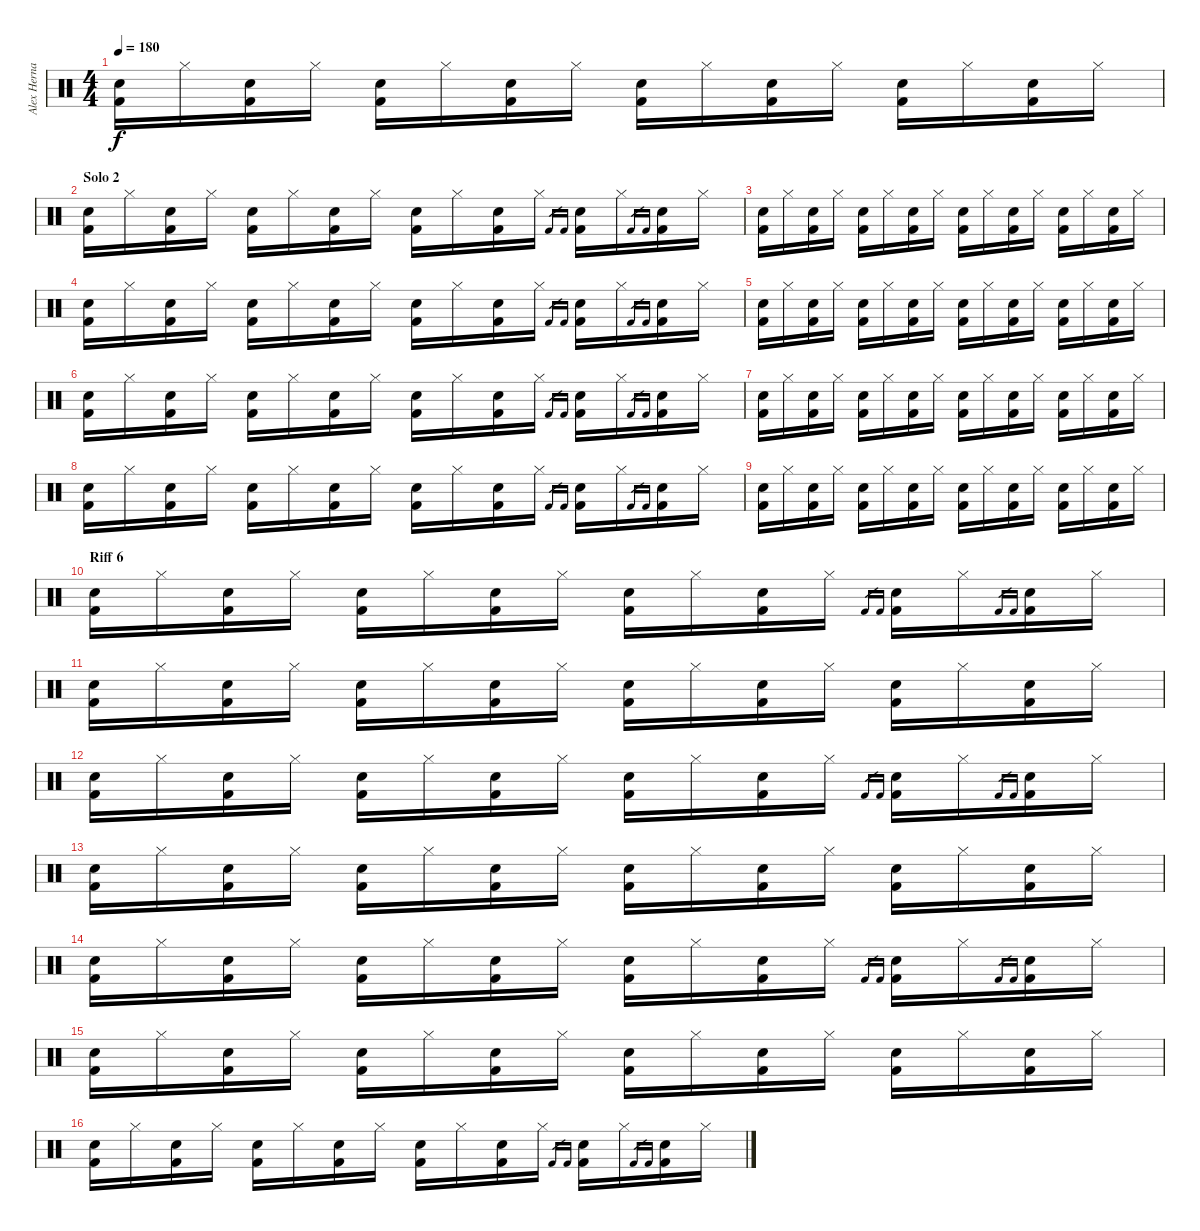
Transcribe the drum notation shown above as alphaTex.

\track ("Alex Hernandez" "Alex Herna") {instrument percussion}
\staff {score}
\articulation defaults
\ts (4 4)
\tempo 180
\clef neutral
\ks c
("Electric Snare (hit)" "Kick (hit) 2").16{dy f} "Hi-Hat (closed)".16 ("Electric Snare (hit)" "Kick (hit) 2").16 "Hi-Hat (closed)".16 ("Electric Snare (hit)" "Kick (hit) 2").16 "Hi-Hat (closed)".16 ("Electric Snare (hit)" "Kick (hit) 2").16 "Hi-Hat (closed)".16 ("Electric Snare (hit)" "Kick (hit) 2").16 "Hi-Hat (closed)".16 ("Electric Snare (hit)" "Kick (hit) 2").16 "Hi-Hat (closed)".16 ("Electric Snare (hit)" "Kick (hit) 2").16 "Hi-Hat (closed)".16 ("Electric Snare (hit)" "Kick (hit) 2").16 "Hi-Hat (closed)".16 |
\section ("" "Solo 2")
("Electric Snare (hit)" "Kick (hit) 2").16 "Hi-Hat (closed)".16 ("Electric Snare (hit)" "Kick (hit) 2").16 "Hi-Hat (closed)".16 ("Electric Snare (hit)" "Kick (hit) 2").16 "Hi-Hat (closed)".16 ("Electric Snare (hit)" "Kick (hit) 2").16 "Hi-Hat (closed)".16 ("Electric Snare (hit)" "Kick (hit) 2").16 "Hi-Hat (closed)".16 ("Electric Snare (hit)" "Kick (hit) 2").16 "Hi-Hat (closed)".16 "Kick (hit) 2".16{gr} "Kick (hit) 2".16{gr} ("Electric Snare (hit)" "Kick (hit) 2").16 "Hi-Hat (closed)".16 "Kick (hit) 2".16{gr} "Kick (hit) 2".16{gr} ("Electric Snare (hit)" "Kick (hit) 2").16 "Hi-Hat (closed)".16 |
("Electric Snare (hit)" "Kick (hit) 2").16 "Hi-Hat (closed)".16 ("Electric Snare (hit)" "Kick (hit) 2").16 "Hi-Hat (closed)".16 ("Electric Snare (hit)" "Kick (hit) 2").16 "Hi-Hat (closed)".16 ("Electric Snare (hit)" "Kick (hit) 2").16 "Hi-Hat (closed)".16 ("Electric Snare (hit)" "Kick (hit) 2").16 "Hi-Hat (closed)".16 ("Electric Snare (hit)" "Kick (hit) 2").16 "Hi-Hat (closed)".16 ("Electric Snare (hit)" "Kick (hit) 2").16 "Hi-Hat (closed)".16 ("Electric Snare (hit)" "Kick (hit) 2").16 "Hi-Hat (closed)".16 |
("Electric Snare (hit)" "Kick (hit) 2").16 "Hi-Hat (closed)".16 ("Electric Snare (hit)" "Kick (hit) 2").16 "Hi-Hat (closed)".16 ("Electric Snare (hit)" "Kick (hit) 2").16 "Hi-Hat (closed)".16 ("Electric Snare (hit)" "Kick (hit) 2").16 "Hi-Hat (closed)".16 ("Electric Snare (hit)" "Kick (hit) 2").16 "Hi-Hat (closed)".16 ("Electric Snare (hit)" "Kick (hit) 2").16 "Hi-Hat (closed)".16 "Kick (hit) 2".16{gr} "Kick (hit) 2".16{gr} ("Electric Snare (hit)" "Kick (hit) 2").16 "Hi-Hat (closed)".16 "Kick (hit) 2".16{gr} "Kick (hit) 2".16{gr} ("Electric Snare (hit)" "Kick (hit) 2").16 "Hi-Hat (closed)".16 |
("Electric Snare (hit)" "Kick (hit) 2").16 "Hi-Hat (closed)".16 ("Electric Snare (hit)" "Kick (hit) 2").16 "Hi-Hat (closed)".16 ("Electric Snare (hit)" "Kick (hit) 2").16 "Hi-Hat (closed)".16 ("Electric Snare (hit)" "Kick (hit) 2").16 "Hi-Hat (closed)".16 ("Electric Snare (hit)" "Kick (hit) 2").16 "Hi-Hat (closed)".16 ("Electric Snare (hit)" "Kick (hit) 2").16 "Hi-Hat (closed)".16 ("Electric Snare (hit)" "Kick (hit) 2").16 "Hi-Hat (closed)".16 ("Electric Snare (hit)" "Kick (hit) 2").16 "Hi-Hat (closed)".16 |
("Electric Snare (hit)" "Kick (hit) 2").16 "Hi-Hat (closed)".16 ("Electric Snare (hit)" "Kick (hit) 2").16 "Hi-Hat (closed)".16 ("Electric Snare (hit)" "Kick (hit) 2").16 "Hi-Hat (closed)".16 ("Electric Snare (hit)" "Kick (hit) 2").16 "Hi-Hat (closed)".16 ("Electric Snare (hit)" "Kick (hit) 2").16 "Hi-Hat (closed)".16 ("Electric Snare (hit)" "Kick (hit) 2").16 "Hi-Hat (closed)".16 "Kick (hit) 2".16{gr} "Kick (hit) 2".16{gr} ("Electric Snare (hit)" "Kick (hit) 2").16 "Hi-Hat (closed)".16 "Kick (hit) 2".16{gr} "Kick (hit) 2".16{gr} ("Electric Snare (hit)" "Kick (hit) 2").16 "Hi-Hat (closed)".16 |
("Electric Snare (hit)" "Kick (hit) 2").16 "Hi-Hat (closed)".16 ("Electric Snare (hit)" "Kick (hit) 2").16 "Hi-Hat (closed)".16 ("Electric Snare (hit)" "Kick (hit) 2").16 "Hi-Hat (closed)".16 ("Electric Snare (hit)" "Kick (hit) 2").16 "Hi-Hat (closed)".16 ("Electric Snare (hit)" "Kick (hit) 2").16 "Hi-Hat (closed)".16 ("Electric Snare (hit)" "Kick (hit) 2").16 "Hi-Hat (closed)".16 ("Electric Snare (hit)" "Kick (hit) 2").16 "Hi-Hat (closed)".16 ("Electric Snare (hit)" "Kick (hit) 2").16 "Hi-Hat (closed)".16 |
("Electric Snare (hit)" "Kick (hit) 2").16 "Hi-Hat (closed)".16 ("Electric Snare (hit)" "Kick (hit) 2").16 "Hi-Hat (closed)".16 ("Electric Snare (hit)" "Kick (hit) 2").16 "Hi-Hat (closed)".16 ("Electric Snare (hit)" "Kick (hit) 2").16 "Hi-Hat (closed)".16 ("Electric Snare (hit)" "Kick (hit) 2").16 "Hi-Hat (closed)".16 ("Electric Snare (hit)" "Kick (hit) 2").16 "Hi-Hat (closed)".16 "Kick (hit) 2".16{gr} "Kick (hit) 2".16{gr} ("Electric Snare (hit)" "Kick (hit) 2").16 "Hi-Hat (closed)".16 "Kick (hit) 2".16{gr} "Kick (hit) 2".16{gr} ("Electric Snare (hit)" "Kick (hit) 2").16 "Hi-Hat (closed)".16 |
("Electric Snare (hit)" "Kick (hit) 2").16 "Hi-Hat (closed)".16 ("Electric Snare (hit)" "Kick (hit) 2").16 "Hi-Hat (closed)".16 ("Electric Snare (hit)" "Kick (hit) 2").16 "Hi-Hat (closed)".16 ("Electric Snare (hit)" "Kick (hit) 2").16 "Hi-Hat (closed)".16 ("Electric Snare (hit)" "Kick (hit) 2").16 "Hi-Hat (closed)".16 ("Electric Snare (hit)" "Kick (hit) 2").16 "Hi-Hat (closed)".16 ("Electric Snare (hit)" "Kick (hit) 2").16 "Hi-Hat (closed)".16 ("Electric Snare (hit)" "Kick (hit) 2").16 "Hi-Hat (closed)".16 |
\section ("" "Riff 6")
("Electric Snare (hit)" "Kick (hit) 2").16 "Hi-Hat (closed)".16 ("Electric Snare (hit)" "Kick (hit) 2").16 "Hi-Hat (closed)".16 ("Electric Snare (hit)" "Kick (hit) 2").16 "Hi-Hat (closed)".16 ("Electric Snare (hit)" "Kick (hit) 2").16 "Hi-Hat (closed)".16 ("Electric Snare (hit)" "Kick (hit) 2").16 "Hi-Hat (closed)".16 ("Electric Snare (hit)" "Kick (hit) 2").16 "Hi-Hat (closed)".16 "Kick (hit) 2".16{gr} "Kick (hit) 2".16{gr} ("Electric Snare (hit)" "Kick (hit) 2").16 "Hi-Hat (closed)".16 "Kick (hit) 2".16{gr} "Kick (hit) 2".16{gr} ("Electric Snare (hit)" "Kick (hit) 2").16 "Hi-Hat (closed)".16 |
("Electric Snare (hit)" "Kick (hit) 2").16 "Hi-Hat (closed)".16 ("Electric Snare (hit)" "Kick (hit) 2").16 "Hi-Hat (closed)".16 ("Electric Snare (hit)" "Kick (hit) 2").16 "Hi-Hat (closed)".16 ("Electric Snare (hit)" "Kick (hit) 2").16 "Hi-Hat (closed)".16 ("Electric Snare (hit)" "Kick (hit) 2").16 "Hi-Hat (closed)".16 ("Electric Snare (hit)" "Kick (hit) 2").16 "Hi-Hat (closed)".16 ("Electric Snare (hit)" "Kick (hit) 2").16 "Hi-Hat (closed)".16 ("Electric Snare (hit)" "Kick (hit) 2").16 "Hi-Hat (closed)".16 |
("Electric Snare (hit)" "Kick (hit) 2").16 "Hi-Hat (closed)".16 ("Electric Snare (hit)" "Kick (hit) 2").16 "Hi-Hat (closed)".16 ("Electric Snare (hit)" "Kick (hit) 2").16 "Hi-Hat (closed)".16 ("Electric Snare (hit)" "Kick (hit) 2").16 "Hi-Hat (closed)".16 ("Electric Snare (hit)" "Kick (hit) 2").16 "Hi-Hat (closed)".16 ("Electric Snare (hit)" "Kick (hit) 2").16 "Hi-Hat (closed)".16 "Kick (hit) 2".16{gr} "Kick (hit) 2".16{gr} ("Electric Snare (hit)" "Kick (hit) 2").16 "Hi-Hat (closed)".16 "Kick (hit) 2".16{gr} "Kick (hit) 2".16{gr} ("Electric Snare (hit)" "Kick (hit) 2").16 "Hi-Hat (closed)".16 |
("Electric Snare (hit)" "Kick (hit) 2").16 "Hi-Hat (closed)".16 ("Electric Snare (hit)" "Kick (hit) 2").16 "Hi-Hat (closed)".16 ("Electric Snare (hit)" "Kick (hit) 2").16 "Hi-Hat (closed)".16 ("Electric Snare (hit)" "Kick (hit) 2").16 "Hi-Hat (closed)".16 ("Electric Snare (hit)" "Kick (hit) 2").16 "Hi-Hat (closed)".16 ("Electric Snare (hit)" "Kick (hit) 2").16 "Hi-Hat (closed)".16 ("Electric Snare (hit)" "Kick (hit) 2").16 "Hi-Hat (closed)".16 ("Electric Snare (hit)" "Kick (hit) 2").16 "Hi-Hat (closed)".16 |
("Electric Snare (hit)" "Kick (hit) 2").16 "Hi-Hat (closed)".16 ("Electric Snare (hit)" "Kick (hit) 2").16 "Hi-Hat (closed)".16 ("Electric Snare (hit)" "Kick (hit) 2").16 "Hi-Hat (closed)".16 ("Electric Snare (hit)" "Kick (hit) 2").16 "Hi-Hat (closed)".16 ("Electric Snare (hit)" "Kick (hit) 2").16 "Hi-Hat (closed)".16 ("Electric Snare (hit)" "Kick (hit) 2").16 "Hi-Hat (closed)".16 "Kick (hit) 2".16{gr} "Kick (hit) 2".16{gr} ("Electric Snare (hit)" "Kick (hit) 2").16 "Hi-Hat (closed)".16 "Kick (hit) 2".16{gr} "Kick (hit) 2".16{gr} ("Electric Snare (hit)" "Kick (hit) 2").16 "Hi-Hat (closed)".16 |
("Electric Snare (hit)" "Kick (hit) 2").16 "Hi-Hat (closed)".16 ("Electric Snare (hit)" "Kick (hit) 2").16 "Hi-Hat (closed)".16 ("Electric Snare (hit)" "Kick (hit) 2").16 "Hi-Hat (closed)".16 ("Electric Snare (hit)" "Kick (hit) 2").16 "Hi-Hat (closed)".16 ("Electric Snare (hit)" "Kick (hit) 2").16 "Hi-Hat (closed)".16 ("Electric Snare (hit)" "Kick (hit) 2").16 "Hi-Hat (closed)".16 ("Electric Snare (hit)" "Kick (hit) 2").16 "Hi-Hat (closed)".16 ("Electric Snare (hit)" "Kick (hit) 2").16 "Hi-Hat (closed)".16 |
("Electric Snare (hit)" "Kick (hit) 2").16 "Hi-Hat (closed)".16 ("Electric Snare (hit)" "Kick (hit) 2").16 "Hi-Hat (closed)".16 ("Electric Snare (hit)" "Kick (hit) 2").16 "Hi-Hat (closed)".16 ("Electric Snare (hit)" "Kick (hit) 2").16 "Hi-Hat (closed)".16 ("Electric Snare (hit)" "Kick (hit) 2").16 "Hi-Hat (closed)".16 ("Electric Snare (hit)" "Kick (hit) 2").16 "Hi-Hat (closed)".16 "Kick (hit) 2".16{gr} "Kick (hit) 2".16{gr} ("Electric Snare (hit)" "Kick (hit) 2").16 "Hi-Hat (closed)".16 "Kick (hit) 2".16{gr} "Kick (hit) 2".16{gr} ("Electric Snare (hit)" "Kick (hit) 2").16 "Hi-Hat (closed)".16
